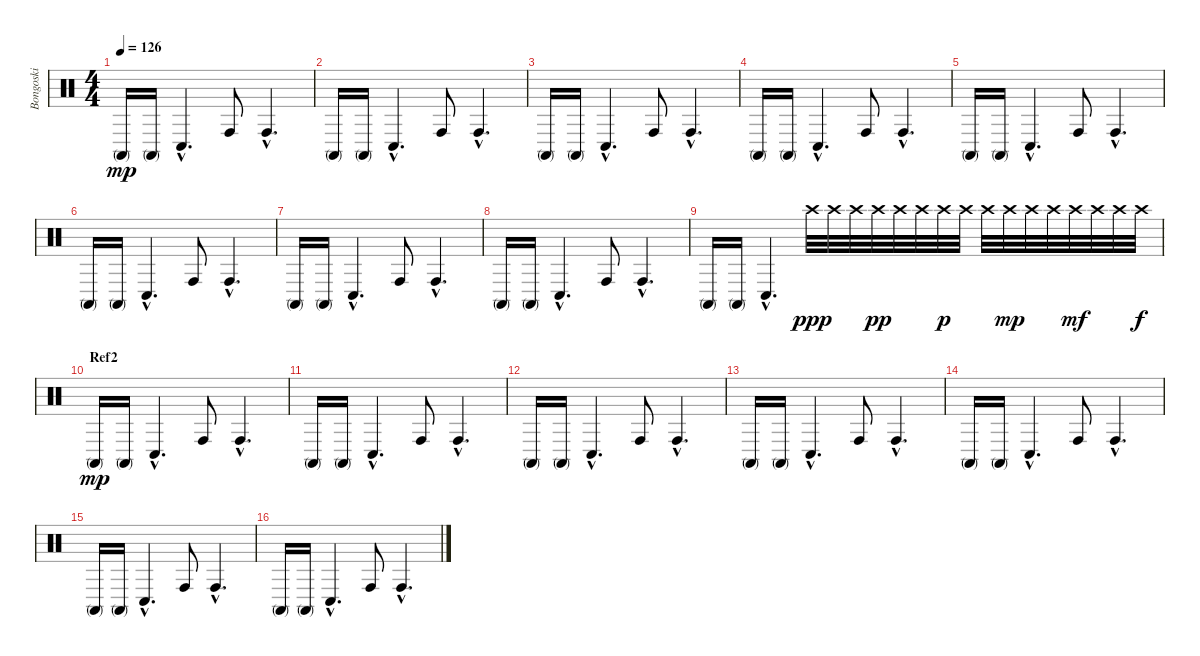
\track ("Bongoski" "Bongoski") {instrument percussion}
\staff {score}
\articulation defaults
\ts (4 4)
\tempo 126
\clef neutral
\ks c "Conga high (mute)".16{dy mp} "Conga high (mute)".16 "Conga low (hit)"{hac}.4{d} "Conga high (hit)".8 "Conga high (hit)"{hac}.4{d}
|
"Conga high (mute)".16 "Conga high (mute)".16 "Conga low (hit)"{hac}.4{d} "Conga high (hit)".8 "Conga high (hit)"{hac}.4{d} |
"Conga high (mute)".16 "Conga high (mute)".16 "Conga low (hit)"{hac}.4{d} "Conga high (hit)".8 "Conga high (hit)"{hac}.4{d} |
"Conga high (mute)".16 "Conga high (mute)".16 "Conga low (hit)"{hac}.4{d} "Conga high (hit)".8 "Conga high (hit)"{hac}.4{d} |
"Conga high (mute)".16 "Conga high (mute)".16 "Conga low (hit)"{hac}.4{d} "Conga high (hit)".8 "Conga high (hit)"{hac}.4{d} |
"Conga high (mute)".16 "Conga high (mute)".16 "Conga low (hit)"{hac}.4{d} "Conga high (hit)".8 "Conga high (hit)"{hac}.4{d} |
"Conga high (mute)".16 "Conga high (mute)".16 "Conga low (hit)"{hac}.4{d} "Conga high (hit)".8 "Conga high (hit)"{hac}.4{d} |
"Conga high (mute)".16 "Conga high (mute)".16 "Conga low (hit)"{hac}.4{d} "Conga high (hit)".8 "Conga high (hit)"{hac}.4{d} |
"Conga high (mute)".16 "Conga high (mute)".16 "Conga low (hit)"{hac}.4{d} "Crash high (hit)".32{dy ppp} "Crash high (hit)".32 "Crash high (hit)".32 "Crash high (hit)".32{dy pp} "Crash high (hit)".32 "Crash high (hit)".32 "Crash high (hit)".32{dy p} "Crash high (hit)".32 "Crash high (hit)".32 "Crash high (hit)".32{dy mp} "Crash high (hit)".32 "Crash high (hit)".32 "Crash high (hit)".32{dy mf} "Crash high (hit)".32 "Crash high (hit)".32 "Crash high (hit)".32{dy f} |
\section ("" "Ref2")
"Conga high (mute)".16{dy mp} "Conga high (mute)".16 "Conga low (hit)"{hac}.4{d} "Conga high (hit)".8 "Conga high (hit)"{hac}.4{d} |
"Conga high (mute)".16 "Conga high (mute)".16 "Conga low (hit)"{hac}.4{d} "Conga high (hit)".8 "Conga high (hit)"{hac}.4{d} |
"Conga high (mute)".16 "Conga high (mute)".16 "Conga low (hit)"{hac}.4{d} "Conga high (hit)".8 "Conga high (hit)"{hac}.4{d} |
"Conga high (mute)".16 "Conga high (mute)".16 "Conga low (hit)"{hac}.4{d} "Conga high (hit)".8 "Conga high (hit)"{hac}.4{d} |
"Conga high (mute)".16 "Conga high (mute)".16 "Conga low (hit)"{hac}.4{d} "Conga high (hit)".8 "Conga high (hit)"{hac}.4{d} |
"Conga high (mute)".16 "Conga high (mute)".16 "Conga low (hit)"{hac}.4{d} "Conga high (hit)".8 "Conga high (hit)"{hac}.4{d} |
"Conga high (mute)".16 "Conga high (mute)".16 "Conga low (hit)"{hac}.4{d} "Conga high (hit)".8 "Conga high (hit)"{hac}.4{d}
